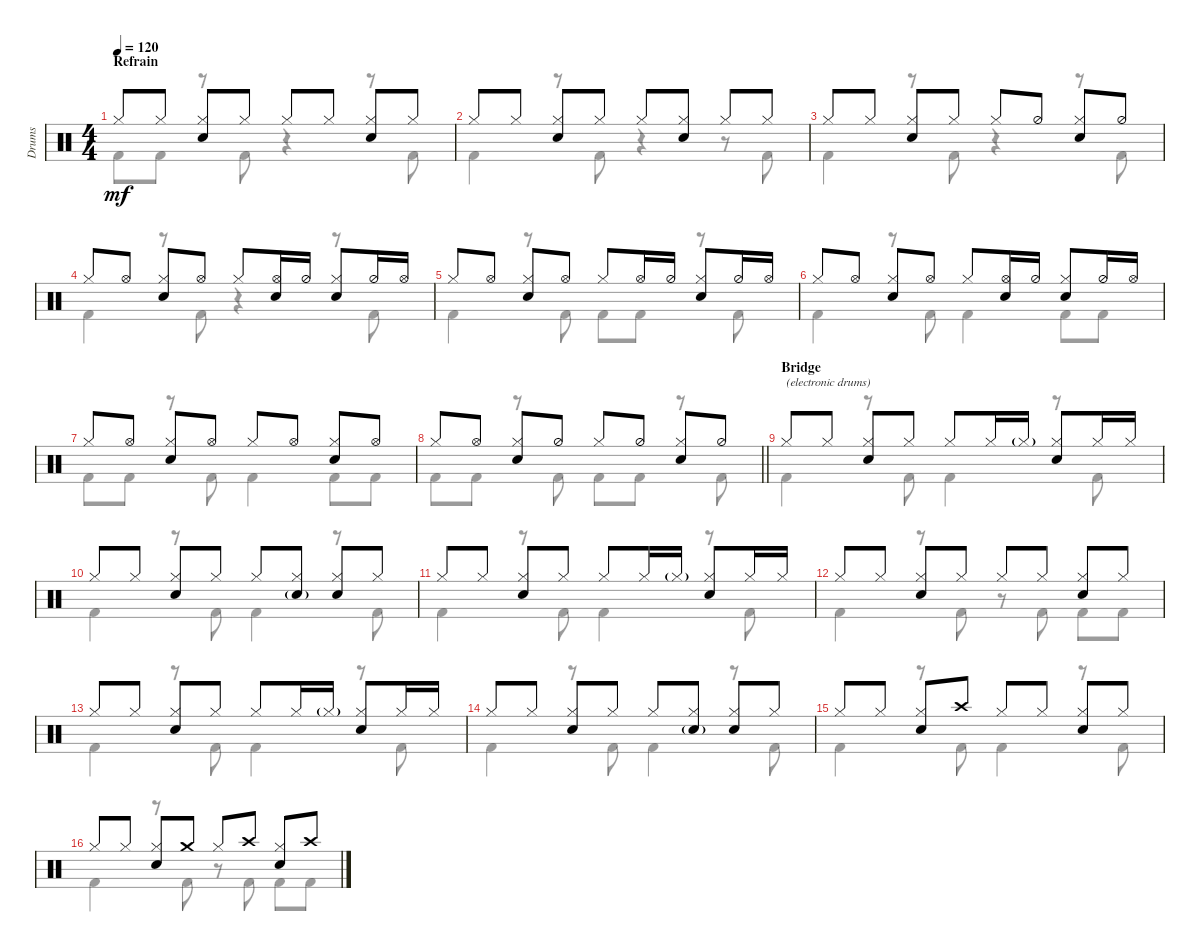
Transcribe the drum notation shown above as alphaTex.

\defaultSystemsLayout 4
\bracketExtendMode groupsimilarinstruments
\otherSystemsTrackNameOrientation horizontal
\track ("Drums" "Drums") {multiBarRest instrument percussion}
\staff {score}
\articulation defaults
\voice
\ts (4 4)
\section ("" "Refrain")
\tempo 120
\clef neutral
\ks c "Hi-Hat (closed)".8{dy mf beam Up} "Hi-Hat (closed)".8{beam Up}
("Hi-Hat (closed)" "Snare (hit) 2").8{beam Up} "Hi-Hat (closed)".8{beam Up} "Hi-Hat (closed)".8{beam Up} "Hi-Hat (closed)".8{beam Up} ("Hi-Hat (closed)" "Snare (hit) 2").8{beam Up} "Hi-Hat (closed)".8{beam Up} |
"Hi-Hat (closed)".8{beam Up} "Hi-Hat (closed)".8{beam Up} ("Hi-Hat (closed)" "Snare (hit) 2").8{beam Up} "Hi-Hat (closed)".8{beam Up} "Hi-Hat (closed)".8{beam Up} ("Hi-Hat (closed)" "Snare (hit) 2").8{beam Up} "Hi-Hat (closed)".8{beam Up} "Hi-Hat (closed)".8{beam Up} |
"Hi-Hat (closed)".8{beam Up} "Hi-Hat (closed)".8{beam Up} ("Hi-Hat (closed)" "Snare (hit) 2").8{beam Up} "Hi-Hat (closed)".8{beam Up} "Hi-Hat (closed)".8{beam Up} "Hi-Hat (half)".8{beam Up} ("Hi-Hat (closed)" "Snare (hit) 2").8{beam Up} "Hi-Hat (half)".8{beam Up} |
"Hi-Hat (closed)".8{beam Up} "Hi-Hat (open)".8{beam Up} ("Hi-Hat (closed)" "Snare (hit) 2").8{beam Up} "Hi-Hat (open)".8{beam Up} "Hi-Hat (closed)".8{beam Up} ("Hi-Hat (open)" "Snare (hit) 2").16{beam Up} "Hi-Hat (half)".16{beam Up} ("Hi-Hat (closed)" "Snare (hit) 2").8{beam Up} "Hi-Hat (half)".16{beam Up} "Hi-Hat (open)".16{beam Up} |
"Hi-Hat (closed)".8{beam Up} "Hi-Hat (open)".8{beam Up} ("Hi-Hat (closed)" "Snare (hit) 2").8{beam Up} "Hi-Hat (open)".8{beam Up} "Hi-Hat (closed)".8{beam Up} "Hi-Hat (open)".16{beam Up} "Hi-Hat (half)".16{beam Up} ("Hi-Hat (closed)" "Snare (hit) 2").8{beam Up} "Hi-Hat (half)".16{beam Up} "Hi-Hat (open)".16{beam Up} |
"Hi-Hat (closed)".8{beam Up} "Hi-Hat (open)".8{beam Up} ("Hi-Hat (closed)" "Snare (hit) 2").8{beam Up} "Hi-Hat (open)".8{beam Up} "Hi-Hat (closed)".8{beam Up} ("Hi-Hat (open)" "Snare (hit) 2").16{beam Up} "Hi-Hat (half)".16{beam Up} ("Hi-Hat (closed)" "Snare (hit) 2").8{beam Up} "Hi-Hat (half)".16{beam Up} "Hi-Hat (open)".16{beam Up} |
"Hi-Hat (closed)".8{beam Up} "Hi-Hat (open)".8{beam Up} ("Hi-Hat (closed)" "Snare (hit) 2").8{beam Up} "Hi-Hat (open)".8{beam Up} "Hi-Hat (closed)".8{beam Up} "Hi-Hat (open)".8{beam Up} ("Hi-Hat (closed)" "Snare (hit) 2").8{beam Up} "Hi-Hat (open)".8{beam Up} |
\barLineRight lightlight "Hi-Hat (closed)".8{beam Up} "Hi-Hat (open)".8{beam Up}
("Hi-Hat (closed)" "Snare (hit) 2").8{beam Up} "Hi-Hat (half)".8{beam Up} "Hi-Hat (closed)".8{beam Up} "Hi-Hat (half)".8{beam Up} ("Hi-Hat (closed)" "Snare (hit) 2").8{beam Up} "Hi-Hat (half)".8{beam Up} |
\section ("" "Bridge")
"Hi-Hat (closed)".8{txt "(electronic drums)" beam Up} "Hi-Hat (closed)".8{beam Up} ("Hi-Hat (closed)" "Snare (hit) 2").8{beam Up} "Hi-Hat (closed)".8{beam Up} "Hi-Hat (closed)".8{beam Up} "Hi-Hat (closed)".16{beam Up} "Hi-Hat (closed)"{g}.16{beam Up} ("Hi-Hat (closed)" "Snare (hit) 2").8{beam Up} "Hi-Hat (closed)".16{beam Up} "Hi-Hat (closed)".16{beam Up} |
"Hi-Hat (closed)".8{beam Up} "Hi-Hat (closed)".8{beam Up} ("Hi-Hat (closed)" "Snare (hit) 2").8{beam Up} "Hi-Hat (closed)".8{beam Up} "Hi-Hat (closed)".8{beam Up} ("Hi-Hat (closed)" "Snare (hit) 2"{g}).8{beam Up} ("Hi-Hat (closed)" "Snare (hit) 2").8{beam Up} "Hi-Hat (closed)".8{beam Up} |
"Hi-Hat (closed)".8{beam Up} "Hi-Hat (closed)".8{beam Up} ("Hi-Hat (closed)" "Snare (hit) 2").8{beam Up} "Hi-Hat (closed)".8{beam Up} "Hi-Hat (closed)".8{beam Up} "Hi-Hat (closed)".16{beam Up} "Hi-Hat (closed)"{g}.16{beam Up} ("Hi-Hat (closed)" "Snare (hit) 2").8{beam Up} "Hi-Hat (closed)".16{beam Up} "Hi-Hat (closed)".16{beam Up} |
"Hi-Hat (closed)".8{beam Up} "Hi-Hat (closed)".8{beam Up} ("Hi-Hat (closed)" "Snare (hit) 2").8{beam Up} "Hi-Hat (closed)".8{beam Up} "Hi-Hat (closed)".8{beam Up} "Hi-Hat (closed)".8{beam Up} ("Hi-Hat (closed)" "Snare (hit) 2").8{beam Up} "Hi-Hat (closed)".8{beam Up} |
"Hi-Hat (closed)".8{beam Up} "Hi-Hat (closed)".8{beam Up} ("Hi-Hat (closed)" "Snare (hit) 2").8{beam Up} "Hi-Hat (closed)".8{beam Up} "Hi-Hat (closed)".8{beam Up} "Hi-Hat (closed)".16{beam Up} "Hi-Hat (closed)"{g}.16{beam Up} ("Hi-Hat (closed)" "Snare (hit) 2").8{beam Up} "Hi-Hat (closed)".16{beam Up} "Hi-Hat (closed)".16{beam Up} |
"Hi-Hat (closed)".8{beam Up} "Hi-Hat (closed)".8{beam Up} ("Hi-Hat (closed)" "Snare (hit) 2").8{beam Up} "Hi-Hat (closed)".8{beam Up} "Hi-Hat (closed)".8{beam Up} ("Hi-Hat (closed)" "Snare (hit) 2"{g}).8{beam Up} ("Hi-Hat (closed)" "Snare (hit) 2").8{beam Up} "Hi-Hat (closed)".8{beam Up} |
"Hi-Hat (closed)".8{beam Up} "Hi-Hat (closed)".8{beam Up} ("Hi-Hat (closed)" "Snare (hit) 2").8{beam Up} "Crash high (hit)".8{beam Up} "Hi-Hat (closed)".8{beam Up} "Hi-Hat (closed)".8{beam Up} ("Hi-Hat (closed)" "Snare (hit) 2").8{beam Up} "Hi-Hat (closed)".8{beam Up} |
"Hi-Hat (closed)".8{beam Up} "Hi-Hat (closed)".8{beam Up} ("Hi-Hat (closed)" "Snare (hit) 2").8{beam Up} "Crash medium (hit)".8{beam Up} "Hi-Hat (closed)".8{beam Up} "Crash high (hit)".8{beam Up} ("Hi-Hat (closed)" "Snare (hit) 2").8{beam Up} "Crash high (hit)".8{beam Up}
\voice
\clef neutral
\ottava regular
\simile none
\ks c "Kick (hit) 2".8{dy mf beam Down} "Kick (hit) 2".8{beam Down}
r.8{beam Down} "Kick (hit) 2".8{beam Down} r.4{beam Down} r.8{beam Down} "Kick (hit) 2".8{beam Down} |
"Kick (hit) 2".4{beam Down} r.8{beam Down} "Kick (hit) 2".8{beam Down} r.4{beam Down} r.8{beam Down} "Kick (hit) 2".8{beam Down} |
"Kick (hit) 2".4{beam Down} r.8{beam Down} "Kick (hit) 2".8{beam Down} r.4{beam Down} r.8{beam Down} "Kick (hit) 2".8{beam Down} |
"Kick (hit) 2".4{beam Down} r.8{beam Down} "Kick (hit) 2".8{beam Down} r.4{beam Down} r.8{beam Down} "Kick (hit) 2".8{beam Down} |
"Kick (hit) 2".4{beam Down} r.8{beam Down} "Kick (hit) 2".8{beam Down} "Kick (hit) 2".8{beam Down} "Kick (hit) 2".8{beam Down} r.8{beam Down} "Kick (hit) 2".8{beam Down} |
"Kick (hit) 2".4{beam Down} r.8{beam Down} "Kick (hit) 2".8{beam Down} "Kick (hit) 2".4{beam Down} "Kick (hit) 2".8{beam Down} "Kick (hit) 2".8{beam Down} |
"Kick (hit) 2".8{beam Down} "Kick (hit) 2".8{beam Down} r.8{beam Down} "Kick (hit) 2".8{beam Down} "Kick (hit) 2".4{beam Down} "Kick (hit) 2".8{beam Down} "Kick (hit) 2".8{beam Down} |
\barLineRight lightlight "Kick (hit) 2".8{beam Down} "Kick (hit) 2".8{beam Down}
r.8{beam Down} "Kick (hit) 2".8{beam Down} "Kick (hit) 2".8{beam Down} "Kick (hit) 2".8{beam Down} r.8{beam Down} "Kick (hit) 2".8{beam Down} |
"Kick (hit) 2".4{beam Down} r.8{beam Down} "Kick (hit) 2".8{beam Down} "Kick (hit) 2".4{beam Down} r.8{beam Down} "Kick (hit) 2".8{beam Down} |
"Kick (hit) 2".4{beam Down} r.8{beam Down} "Kick (hit) 2".8{beam Down} "Kick (hit) 2".4{beam Down} r.8{beam Down} "Kick (hit) 2".8{beam Down} |
"Kick (hit) 2".4{beam Down} r.8{beam Down} "Kick (hit) 2".8{beam Down} "Kick (hit) 2".4{beam Down} r.8{beam Down} "Kick (hit) 2".8{beam Down} |
"Kick (hit) 2".4{beam Down} r.8{beam Down} "Kick (hit) 2".8{beam Down} r.8{beam Down} "Kick (hit) 2".8{beam Down} "Kick (hit) 2".8{beam Down} "Kick (hit) 2".8{beam Down} |
"Kick (hit) 2".4{beam Down} r.8{beam Down} "Kick (hit) 2".8{beam Down} "Kick (hit) 2".4{beam Down} r.8{beam Down} "Kick (hit) 2".8{beam Down} |
"Kick (hit) 2".4{beam Down} r.8{beam Down} "Kick (hit) 2".8{beam Down} "Kick (hit) 2".4{beam Down} r.8{beam Down} "Kick (hit) 2".8{beam Down} |
"Kick (hit) 2".4{beam Down} r.8{beam Down} "Kick (hit) 2".8{beam Down} "Kick (hit) 2".4{beam Down} r.8{beam Down} "Kick (hit) 2".8{beam Down} |
"Kick (hit) 2".4{beam Down} r.8{beam Down} "Kick (hit) 2".8{beam Down} r.8{beam Down} "Kick (hit) 2".8{beam Down} "Kick (hit) 2".8{beam Down} "Kick (hit) 2".8{beam Down}
